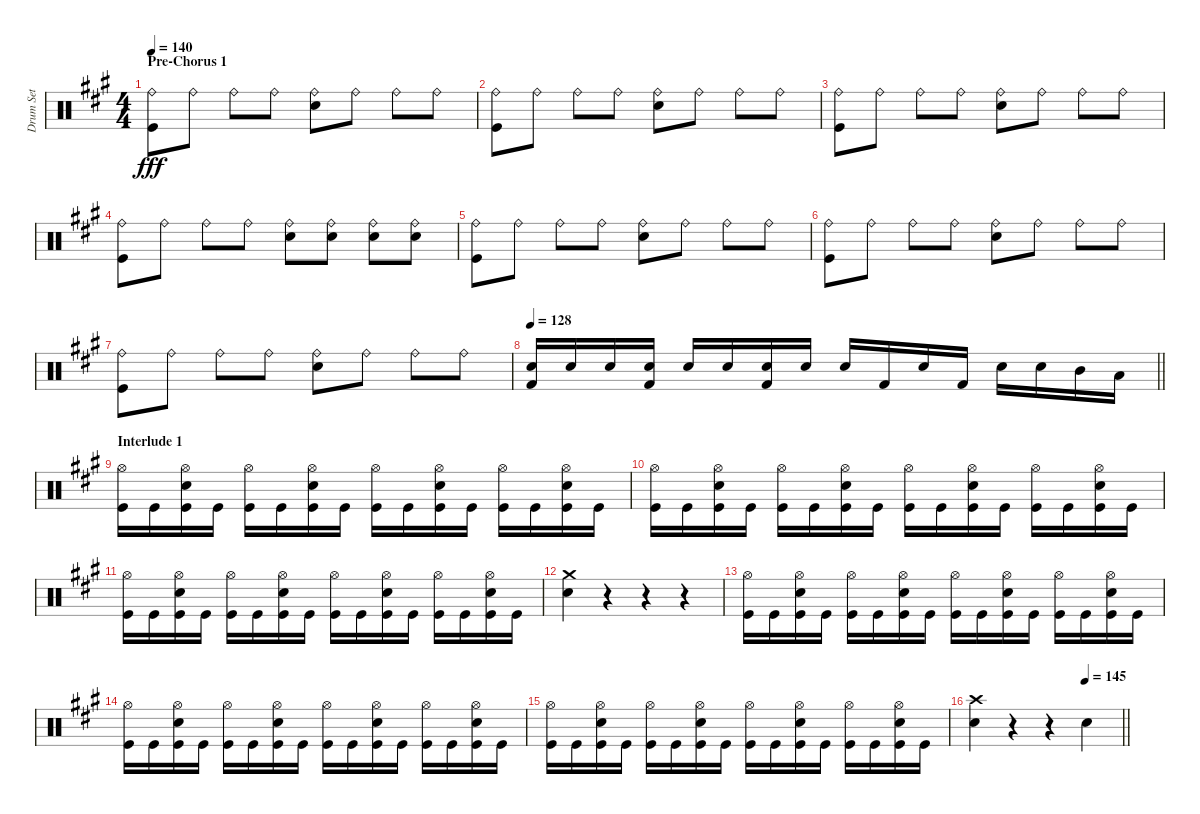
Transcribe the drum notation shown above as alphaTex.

\track ("Drum Set" "Drum Set") {instrument percussion}
\staff {score}
\articulation defaults
\ts (4 4)
\section ("" "Pre-Chorus 1")
\tempo 140
\clef neutral
\ks a
("Ride (bell)" "Kick (hit)").8{dy fff} "Ride (bell)".8 "Ride (bell)".8 "Ride (bell)".8 ("Ride (bell)" "Electric Snare (hit)").8 "Ride (bell)".8 "Ride (bell)".8 "Ride (bell)".8 |
("Ride (bell)" "Kick (hit)").8 "Ride (bell)".8 "Ride (bell)".8 "Ride (bell)".8 ("Ride (bell)" "Electric Snare (hit)").8 "Ride (bell)".8 "Ride (bell)".8 "Ride (bell)".8 |
("Ride (bell)" "Kick (hit)").8 "Ride (bell)".8 "Ride (bell)".8 "Ride (bell)".8 ("Ride (bell)" "Electric Snare (hit)").8 "Ride (bell)".8 "Ride (bell)".8 "Ride (bell)".8 |
("Ride (bell)" "Kick (hit)").8 "Ride (bell)".8 "Ride (bell)".8 "Ride (bell)".8 ("Ride (bell)" "Electric Snare (hit)").8 ("Ride (bell)" "Electric Snare (hit)").8 ("Ride (bell)" "Electric Snare (hit)").8 ("Ride (bell)" "Electric Snare (hit)").8 |
("Ride (bell)" "Kick (hit)").8 "Ride (bell)".8 "Ride (bell)".8 "Ride (bell)".8 ("Ride (bell)" "Electric Snare (hit)").8 "Ride (bell)".8 "Ride (bell)".8 "Ride (bell)".8 |
("Ride (bell)" "Kick (hit)").8 "Ride (bell)".8 "Ride (bell)".8 "Ride (bell)".8 ("Ride (bell)" "Electric Snare (hit)").8 "Ride (bell)".8 "Ride (bell)".8 "Ride (bell)".8 |
("Ride (bell)" "Kick (hit)").8 "Ride (bell)".8 "Ride (bell)".8 "Ride (bell)".8 ("Ride (bell)" "Electric Snare (hit)").8 "Ride (bell)".8 "Ride (bell)".8 "Ride (bell)".8 |
\tempo 128
\barLineRight lightlight
("Kick (hit) 2" "Electric Snare (hit)").16 "Electric Snare (hit)".16 "Electric Snare (hit)".16 ("Kick (hit) 2" "Electric Snare (hit)").16 "Electric Snare (hit)".16 "Electric Snare (hit)".16 ("Kick (hit) 2" "Electric Snare (hit)").16 "Electric Snare (hit)".16 "Electric Snare (hit)".16 "Kick (hit) 2".16 "Electric Snare (hit)".16 "Kick (hit) 2".16 "Electric Snare (hit)".16 "Electric Snare (hit)".16 "Mid Tom (hit)".16 "Low Tom (hit)".16 |
\section ("" "Interlude 1")
("Hi-Hat (open)" "Kick (hit)").16 "Kick (hit)".16 ("Electric Snare (hit)" "Hi-Hat (open)" "Kick (hit)").16 "Kick (hit)".16 ("Hi-Hat (open)" "Kick (hit)").16 "Kick (hit)".16 ("Electric Snare (hit)" "Hi-Hat (open)" "Kick (hit)").16 "Kick (hit)".16 ("Hi-Hat (open)" "Kick (hit)").16 "Kick (hit)".16 ("Electric Snare (hit)" "Hi-Hat (open)" "Kick (hit)").16 "Kick (hit)".16 ("Hi-Hat (open)" "Kick (hit)").16 "Kick (hit)".16 ("Electric Snare (hit)" "Hi-Hat (open)" "Kick (hit)").16 "Kick (hit)".16 |
("Hi-Hat (open)" "Kick (hit)").16 "Kick (hit)".16 ("Electric Snare (hit)" "Hi-Hat (open)" "Kick (hit)").16 "Kick (hit)".16 ("Hi-Hat (open)" "Kick (hit)").16 "Kick (hit)".16 ("Electric Snare (hit)" "Hi-Hat (open)" "Kick (hit)").16 "Kick (hit)".16 ("Hi-Hat (open)" "Kick (hit)").16 "Kick (hit)".16 ("Electric Snare (hit)" "Hi-Hat (open)" "Kick (hit)").16 "Kick (hit)".16 ("Hi-Hat (open)" "Kick (hit)").16 "Kick (hit)".16 ("Electric Snare (hit)" "Hi-Hat (open)" "Kick (hit)").16 "Kick (hit)".16 |
("Hi-Hat (open)" "Kick (hit)").16 "Kick (hit)".16 ("Electric Snare (hit)" "Hi-Hat (open)" "Kick (hit)").16 "Kick (hit)".16 ("Hi-Hat (open)" "Kick (hit)").16 "Kick (hit)".16 ("Electric Snare (hit)" "Hi-Hat (open)" "Kick (hit)").16 "Kick (hit)".16 ("Hi-Hat (open)" "Kick (hit)").16 "Kick (hit)".16 ("Electric Snare (hit)" "Hi-Hat (open)" "Kick (hit)").16 "Kick (hit)".16 ("Hi-Hat (open)" "Kick (hit)").16 "Kick (hit)".16 ("Electric Snare (hit)" "Hi-Hat (open)" "Kick (hit)").16 "Kick (hit)".16 |
("Electric Snare (hit)" "Crash medium (hit)").4 r.4 r.4 r.4 |
("Hi-Hat (open)" "Kick (hit)").16 "Kick (hit)".16 ("Electric Snare (hit)" "Hi-Hat (open)" "Kick (hit)").16 "Kick (hit)".16 ("Hi-Hat (open)" "Kick (hit)").16 "Kick (hit)".16 ("Electric Snare (hit)" "Hi-Hat (open)" "Kick (hit)").16 "Kick (hit)".16 ("Hi-Hat (open)" "Kick (hit)").16 "Kick (hit)".16 ("Electric Snare (hit)" "Hi-Hat (open)" "Kick (hit)").16 "Kick (hit)".16 ("Hi-Hat (open)" "Kick (hit)").16 "Kick (hit)".16 ("Electric Snare (hit)" "Hi-Hat (open)" "Kick (hit)").16 "Kick (hit)".16 |
("Hi-Hat (open)" "Kick (hit)").16 "Kick (hit)".16 ("Electric Snare (hit)" "Hi-Hat (open)" "Kick (hit)").16 "Kick (hit)".16 ("Hi-Hat (open)" "Kick (hit)").16 "Kick (hit)".16 ("Electric Snare (hit)" "Hi-Hat (open)" "Kick (hit)").16 "Kick (hit)".16 ("Hi-Hat (open)" "Kick (hit)").16 "Kick (hit)".16 ("Electric Snare (hit)" "Hi-Hat (open)" "Kick (hit)").16 "Kick (hit)".16 ("Hi-Hat (open)" "Kick (hit)").16 "Kick (hit)".16 ("Electric Snare (hit)" "Hi-Hat (open)" "Kick (hit)").16 "Kick (hit)".16 |
("Hi-Hat (open)" "Kick (hit)").16 "Kick (hit)".16 ("Electric Snare (hit)" "Hi-Hat (open)" "Kick (hit)").16 "Kick (hit)".16 ("Hi-Hat (open)" "Kick (hit)").16 "Kick (hit)".16 ("Electric Snare (hit)" "Hi-Hat (open)" "Kick (hit)").16 "Kick (hit)".16 ("Hi-Hat (open)" "Kick (hit)").16 "Kick (hit)".16 ("Electric Snare (hit)" "Hi-Hat (open)" "Kick (hit)").16 "Kick (hit)".16 ("Hi-Hat (open)" "Kick (hit)").16 "Kick (hit)".16 ("Electric Snare (hit)" "Hi-Hat (open)" "Kick (hit)").16 "Kick (hit)".16 |
\tempo (145 0.75)
\barLineRight lightlight
("Crash high (hit)" "Electric Snare (hit)").4 r.4 r.4 "Electric Snare (hit)".4
